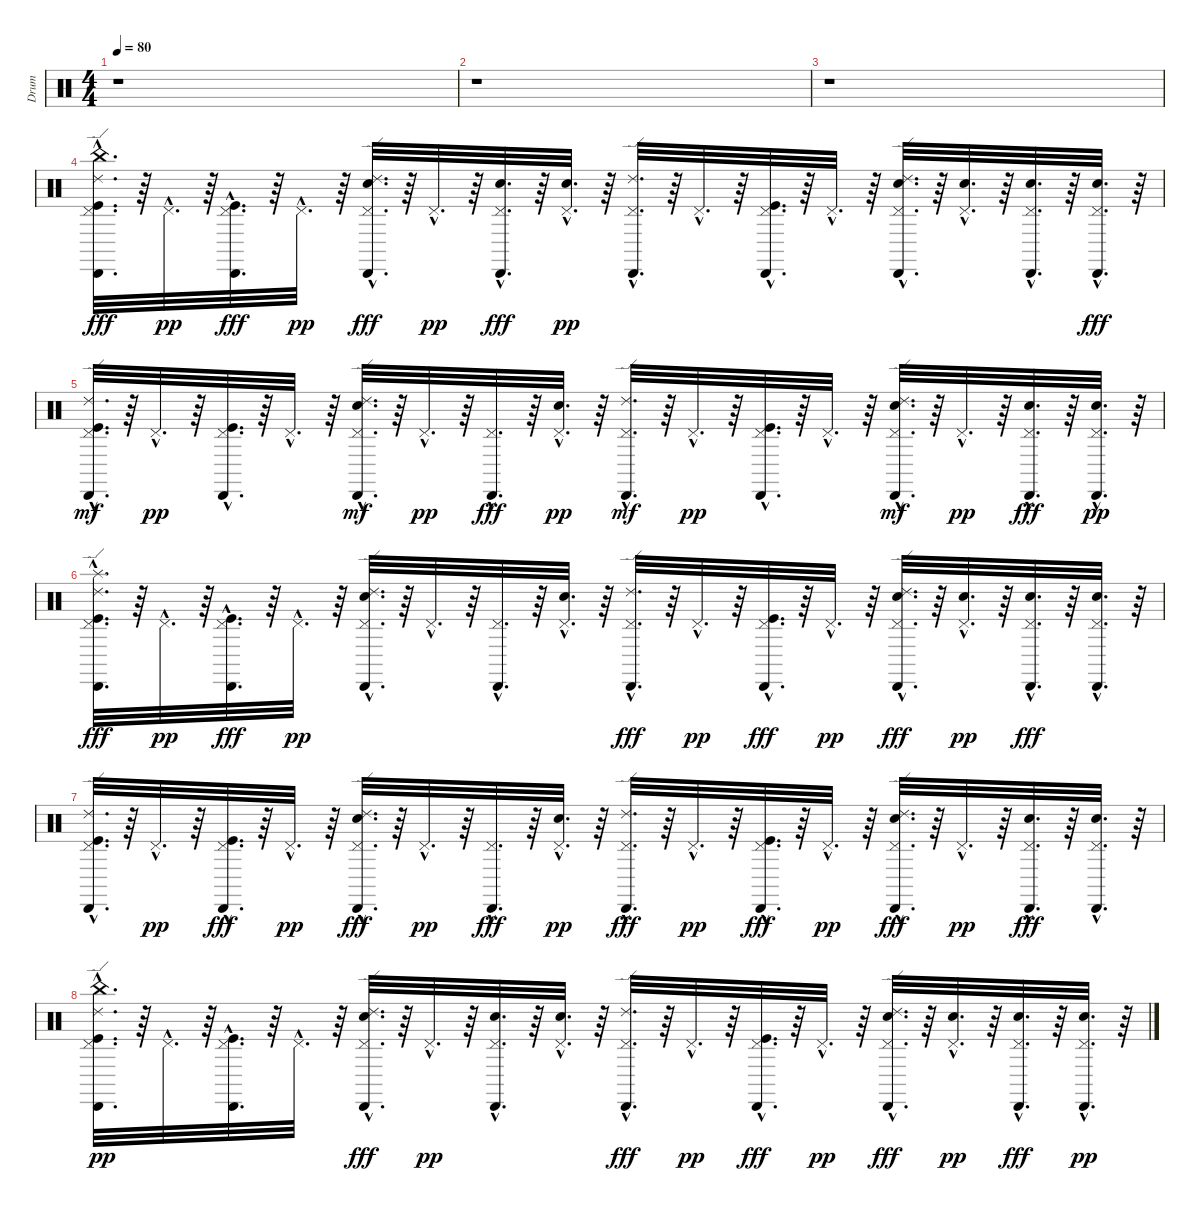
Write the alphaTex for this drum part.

\track ("Drum" "Drum") {instrument percussion}
\staff {score}
\articulation defaults
\ts (4 4)
\tempo 80
\clef neutral
\ks c
r.1{dy fff} |
r.1 |
r.1 |
("Pedal Hi-Hat (hit)"{hac} "Cabasa (hit)"{hac} "Kick (hit)"{hac} "Ride (edge) 2"{hac} "China (hit)"{hac}).32{d} r.64 "Pedal Hi-Hat (hit)"{hac}.32{d dy pp} r.64 ("Pedal Hi-Hat (hit)"{hac} "Cabasa (hit)"{hac} "Kick (hit)"{hac}).32{d dy fff} r.64 "Pedal Hi-Hat (hit)"{hac}.32{d dy pp} r.64 ("Ride (edge) 2"{hac} "Pedal Hi-Hat (hit)"{hac} "Snare (hit) 2"{hac} "Cabasa (hit)"{hac}).32{d dy fff} r.64 "Pedal Hi-Hat (hit)"{hac}.32{d dy pp} r.64 ("Pedal Hi-Hat (hit)"{hac} "Cabasa (hit)"{hac} "Snare (hit) 2"{hac}).32{d dy fff} r.64 ("Snare (hit) 2"{hac} "Pedal Hi-Hat (hit)"{hac}).32{d dy pp} r.64 ("Ride (edge) 2"{hac} "Cabasa (hit)"{hac} "Pedal Hi-Hat (hit)"{hac}).32{d} r.64 "Pedal Hi-Hat (hit)"{hac}.32{d} r.64 ("Cabasa (hit)"{hac} "Pedal Hi-Hat (hit)"{hac} "Kick (hit)"{hac}).32{d} r.64 "Pedal Hi-Hat (hit)"{hac}.32{d} r.64 ("Ride (edge) 2"{hac} "Cabasa (hit)"{hac} "Snare (hit) 2"{hac} "Pedal Hi-Hat (hit)"{hac}).32{d} r.64 ("Pedal Hi-Hat (hit)"{hac} "Snare (hit) 2"{hac}).32{d} r.64 ("Cabasa (hit)"{hac} "Pedal Hi-Hat (hit)"{hac} "Snare (hit) 2"{hac}).32{d} r.64 ("Pedal Hi-Hat (hit)"{hac} "Cabasa (hit)"{hac} "Snare (hit) 2"{hac}).32{d dy fff} r.64 |
("Pedal Hi-Hat (hit)"{hac} "Cabasa (hit)"{hac} "Ride (edge) 2"{hac} "Kick (hit)"{hac}).32{d dy mf} r.64 "Pedal Hi-Hat (hit)"{hac}.32{d dy pp} r.64 ("Kick (hit)"{hac} "Cabasa (hit)"{hac} "Pedal Hi-Hat (hit)"{hac}).32{d} r.64 "Pedal Hi-Hat (hit)"{hac}.32{d} r.64 ("Pedal Hi-Hat (hit)"{hac} "Cabasa (hit)"{hac} "Ride (edge) 2"{hac} "Snare (hit) 2"{hac}).32{d dy mf} r.64 "Pedal Hi-Hat (hit)"{hac}.32{d dy pp} r.64 ("Pedal Hi-Hat (hit)"{hac} "Cabasa (hit)"{hac}).32{d dy fff} r.64 ("Snare (hit) 2"{hac} "Pedal Hi-Hat (hit)"{hac}).32{d dy pp} r.64 ("Cabasa (hit)"{hac} "Pedal Hi-Hat (hit)"{hac} "Ride (edge) 2"{hac}).32{d dy mf} r.64 "Pedal Hi-Hat (hit)"{hac}.32{d dy pp} r.64 ("Kick (hit)"{hac} "Cabasa (hit)"{hac} "Pedal Hi-Hat (hit)"{hac}).32{d} r.64 "Pedal Hi-Hat (hit)"{hac}.32{d} r.64 ("Cabasa (hit)"{hac} "Pedal Hi-Hat (hit)"{hac} "Snare (hit) 2"{hac} "Ride (edge) 2"{hac}).32{d dy mf} r.64 "Pedal Hi-Hat (hit)"{hac}.32{d dy pp} r.64 ("Snare (hit) 2"{hac} "Pedal Hi-Hat (hit)"{hac} "Cabasa (hit)"{hac}).32{d dy fff} r.64 ("Cabasa (hit)"{hac} "Snare (hit) 2"{hac} "Pedal Hi-Hat (hit)"{hac}).32{d dy pp} r.64 |
("Ride (edge) 2"{hac} "Kick (hit)"{hac} "Pedal Hi-Hat (hit)"{hac} "Cabasa (hit)"{hac} "Splash (hit)"{hac}).32{d dy fff} r.64 "Pedal Hi-Hat (hit)"{hac}.32{d dy pp} r.64 ("Kick (hit)"{hac} "Pedal Hi-Hat (hit)"{hac} "Cabasa (hit)"{hac}).32{d dy fff} r.64 "Pedal Hi-Hat (hit)"{hac}.32{d dy pp} r.64 ("Cabasa (hit)"{hac} "Ride (edge) 2"{hac} "Pedal Hi-Hat (hit)"{hac} "Snare (hit) 2"{hac}).32{d} r.64 "Pedal Hi-Hat (hit)"{hac}.32{d} r.64 ("Cabasa (hit)"{hac} "Pedal Hi-Hat (hit)"{hac}).32{d} r.64 ("Snare (hit) 2"{hac} "Pedal Hi-Hat (hit)"{hac}).32{d} r.64 ("Ride (edge) 2"{hac} "Pedal Hi-Hat (hit)"{hac} "Cabasa (hit)"{hac}).32{d dy fff} r.64 "Pedal Hi-Hat (hit)"{hac}.32{d dy pp} r.64 ("Pedal Hi-Hat (hit)"{hac} "Cabasa (hit)"{hac} "Kick (hit)"{hac}).32{d dy fff} r.64 "Pedal Hi-Hat (hit)"{hac}.32{d dy pp} r.64 ("Pedal Hi-Hat (hit)"{hac} "Ride (edge) 2"{hac} "Snare (hit) 2"{hac} "Cabasa (hit)"{hac}).32{d dy fff} r.64 ("Snare (hit) 2"{hac} "Pedal Hi-Hat (hit)"{hac}).32{d dy pp} r.64 ("Pedal Hi-Hat (hit)"{hac} "Snare (hit) 2"{hac} "Cabasa (hit)"{hac}).32{d dy fff} r.64 ("Snare (hit) 2"{hac} "Pedal Hi-Hat (hit)"{hac} "Cabasa (hit)"{hac}).32{d} r.64 |
("Ride (edge) 2"{hac} "Pedal Hi-Hat (hit)"{hac} "Cabasa (hit)"{hac} "Kick (hit)"{hac}).32{d} r.64 "Pedal Hi-Hat (hit)"{hac}.32{d dy pp} r.64 ("Pedal Hi-Hat (hit)"{hac} "Cabasa (hit)"{hac} "Kick (hit)"{hac}).32{d dy fff} r.64 "Pedal Hi-Hat (hit)"{hac}.32{d dy pp} r.64 ("Ride (edge) 2"{hac} "Pedal Hi-Hat (hit)"{hac} "Cabasa (hit)"{hac} "Snare (hit) 2"{hac}).32{d dy fff} r.64 "Pedal Hi-Hat (hit)"{hac}.32{d dy pp} r.64 ("Pedal Hi-Hat (hit)"{hac} "Cabasa (hit)"{hac}).32{d dy fff} r.64 ("Pedal Hi-Hat (hit)"{hac} "Snare (hit) 2"{hac}).32{d dy pp} r.64 ("Ride (edge) 2"{hac} "Pedal Hi-Hat (hit)"{hac} "Cabasa (hit)"{hac}).32{d dy fff} r.64 "Pedal Hi-Hat (hit)"{hac}.32{d dy pp} r.64 ("Pedal Hi-Hat (hit)"{hac} "Cabasa (hit)"{hac} "Kick (hit)"{hac}).32{d dy fff} r.64 "Pedal Hi-Hat (hit)"{hac}.32{d dy pp} r.64 ("Ride (edge) 2"{hac} "Pedal Hi-Hat (hit)"{hac} "Cabasa (hit)"{hac} "Snare (hit) 2"{hac}).32{d dy fff} r.64 "Pedal Hi-Hat (hit)"{hac}.32{d dy pp} r.64 ("Pedal Hi-Hat (hit)"{hac} "Cabasa (hit)"{hac} "Snare (hit) 2"{hac}).32{d dy fff} r.64 ("Pedal Hi-Hat (hit)"{hac} "Cabasa (hit)"{hac} "Snare (hit) 2"{hac}).32{d} r.64 |
("China (hit)"{hac} "Ride (edge) 2"{hac} "Kick (hit)"{hac} "Cabasa (hit)"{hac} "Pedal Hi-Hat (hit)"{hac}).32{d dy pp} r.64 "Pedal Hi-Hat (hit)"{hac}.32{d} r.64 ("Kick (hit)"{hac} "Cabasa (hit)"{hac} "Pedal Hi-Hat (hit)"{hac}).32{d} r.64 "Pedal Hi-Hat (hit)"{hac}.32{d} r.64 ("Cabasa (hit)"{hac} "Snare (hit) 2"{hac} "Pedal Hi-Hat (hit)"{hac} "Ride (edge) 2"{hac}).32{d dy fff} r.64 "Pedal Hi-Hat (hit)"{hac}.32{d dy pp} r.64 ("Snare (hit) 2"{hac} "Cabasa (hit)"{hac} "Pedal Hi-Hat (hit)"{hac}).32{d} r.64 ("Pedal Hi-Hat (hit)"{hac} "Snare (hit) 2"{hac}).32{d} r.64 ("Pedal Hi-Hat (hit)"{hac} "Cabasa (hit)"{hac} "Ride (edge) 2"{hac}).32{d dy fff} r.64 "Pedal Hi-Hat (hit)"{hac}.32{d dy pp} r.64 ("Kick (hit)"{hac} "Pedal Hi-Hat (hit)"{hac} "Cabasa (hit)"{hac}).32{d dy fff} r.64 "Pedal Hi-Hat (hit)"{hac}.32{d dy pp} r.64 ("Pedal Hi-Hat (hit)"{hac} "Snare (hit) 2"{hac} "Cabasa (hit)"{hac} "Ride (edge) 2"{hac}).32{d dy fff} r.64 ("Snare (hit) 2"{hac} "Pedal Hi-Hat (hit)"{hac}).32{d dy pp} r.64 ("Snare (hit) 2"{hac} "Pedal Hi-Hat (hit)"{hac} "Cabasa (hit)"{hac}).32{d dy fff} r.64 ("Snare (hit) 2"{hac} "Cabasa (hit)"{hac} "Pedal Hi-Hat (hit)"{hac}).32{d dy pp} r.64
